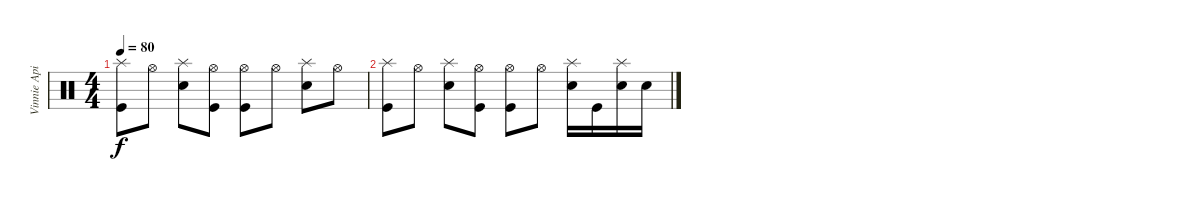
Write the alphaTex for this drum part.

\track ("Vinnie Apice" "Vinnie Api") {instrument percussion}
\staff {score}
\articulation defaults
\ts (4 4)
\tempo 80
\clef neutral
\ks c
("Splash (hit)" "Kick (hit)").8{dy f} "Hi-Hat (open)".8 ("Splash (hit)" "Snare (hit) 2").8 ("Hi-Hat (open)" "Kick (hit)").8 ("Hi-Hat (open)" "Kick (hit)").8 "Hi-Hat (open)".8 ("Splash (hit)" "Snare (hit) 2").8 "Hi-Hat (open)".8 |
("Splash (hit)" "Kick (hit)").8 "Hi-Hat (open)".8 ("Splash (hit)" "Snare (hit) 2").8 ("Hi-Hat (open)" "Kick (hit)").8 ("Hi-Hat (open)" "Kick (hit)").8 "Hi-Hat (open)".8 ("Splash (hit)" "Snare (hit) 2").16 "Kick (hit)".16 ("Splash (hit)" "Snare (hit) 2").16 "Snare (hit) 2".16
